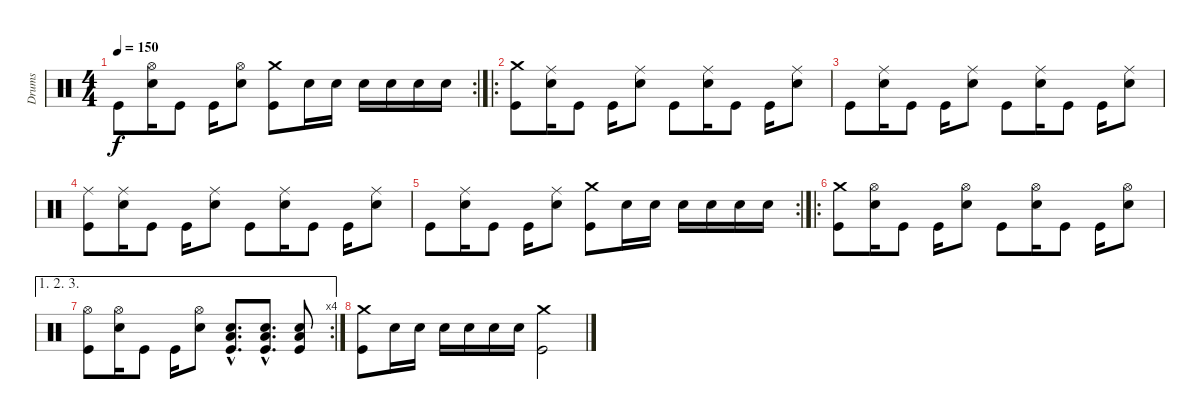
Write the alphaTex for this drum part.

\track ("Drums" "Drums") {instrument percussion}
\staff {score}
\articulation defaults
\rc 2
\ts (4 4)
\tempo 150
\clef neutral
\ks c "Kick (hit)".8{dy f}
("Hi-Hat (open)" "Electric Snare (hit)").16 "Kick (hit)".8 "Kick (hit)".16 ("Hi-Hat (open)" "Electric Snare (hit)").8 ("Crash medium (hit)" "Kick (hit)").8 "Electric Snare (hit)".16 "Electric Snare (hit)".16 "Electric Snare (hit)".16 "Electric Snare (hit)".16 "Electric Snare (hit)".16 "Electric Snare (hit)".16 |
\ro
("Crash medium (hit)" "Kick (hit)").8 ("Ride (middle)" "Electric Snare (hit)").16 "Kick (hit)".8 "Kick (hit)".16 ("Ride (middle)" "Electric Snare (hit)").8 "Kick (hit)".8 ("Ride (middle)" "Electric Snare (hit)").16 "Kick (hit)".8 "Kick (hit)".16 ("Ride (middle)" "Electric Snare (hit)").8 |
"Kick (hit)".8 ("Ride (middle)" "Electric Snare (hit)").16 "Kick (hit)".8 "Kick (hit)".16 ("Ride (middle)" "Electric Snare (hit)").8 "Kick (hit)".8 ("Ride (middle)" "Electric Snare (hit)").16 "Kick (hit)".8 "Kick (hit)".16 ("Ride (middle)" "Electric Snare (hit)").8 |
("Ride (middle)" "Kick (hit)").8 ("Ride (middle)" "Electric Snare (hit)").16 "Kick (hit)".8 "Kick (hit)".16 ("Ride (middle)" "Electric Snare (hit)").8 "Kick (hit)".8 ("Ride (middle)" "Electric Snare (hit)").16 "Kick (hit)".8 "Kick (hit)".16 ("Ride (middle)" "Electric Snare (hit)").8 |
\rc 2 "Kick (hit)".8
("Ride (middle)" "Electric Snare (hit)").16 "Kick (hit)".8 "Kick (hit)".16 ("Ride (middle)" "Electric Snare (hit)").8 ("Crash medium (hit)" "Kick (hit)").8 "Electric Snare (hit)".16 "Electric Snare (hit)".16 "Electric Snare (hit)".16 "Electric Snare (hit)".16 "Electric Snare (hit)".16 "Electric Snare (hit)".16 |
\ro
("Crash medium (hit)" "Kick (hit)").8 ("Hi-Hat (open)" "Electric Snare (hit)").16 "Kick (hit)".8 "Kick (hit)".16 ("Hi-Hat (open)" "Electric Snare (hit)").8 "Kick (hit)".8 ("Hi-Hat (open)" "Electric Snare (hit)").16 "Kick (hit)".8 "Kick (hit)".16 ("Hi-Hat (open)" "Electric Snare (hit)").8 |
\ae (1 2 3)
\rc 4
("Hi-Hat (open)" "Kick (hit)").8 ("Hi-Hat (open)" "Electric Snare (hit)").16 "Kick (hit)".8 "Kick (hit)".16 ("Hi-Hat (open)" "Electric Snare (hit)").8 ("Low Floor Tom (hit)"{hac} "Electric Snare (hit)"{hac} "Kick (hit)"{hac}).8{d} ("Low Floor Tom (hit)"{hac} "Electric Snare (hit)"{hac} "Kick (hit)"{hac}).8{d} ("Low Floor Tom (hit)" "Electric Snare (hit)" "Kick (hit)").8 |
("Crash medium (hit)" "Kick (hit)").8 "Electric Snare (hit)".16 "Electric Snare (hit)".16 "Electric Snare (hit)".16 "Electric Snare (hit)".16 "Electric Snare (hit)".16 "Electric Snare (hit)".16 ("Crash medium (hit)" "Kick (hit)").2
